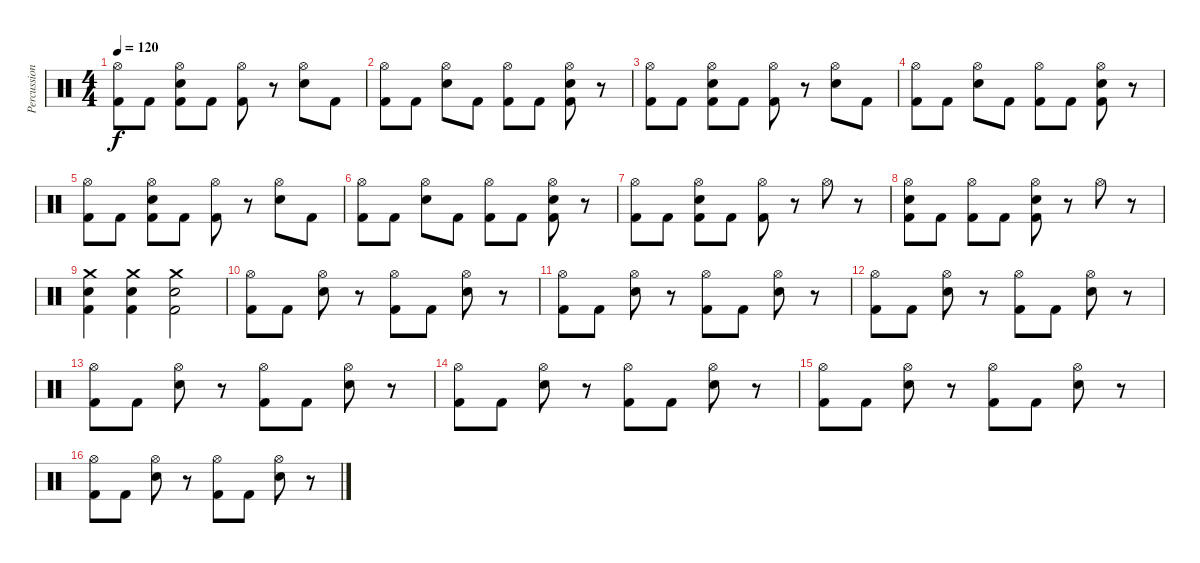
\track ("Percussion" "Percussion") {solo instrument percussion}
\staff {score}
\articulation defaults
\ts (4 4)
\tempo 120
\clef neutral
\ks c
("Hi-Hat (open)" "Kick (hit) 2").8{dy f} "Kick (hit) 2".8 ("Hi-Hat (open)" "Snare (hit) 2" "Kick (hit) 2").8 "Kick (hit) 2".8 ("Hi-Hat (open)" "Kick (hit) 2").8 r.8 ("Hi-Hat (open)" "Snare (hit) 2").8 "Kick (hit) 2".8 |
("Hi-Hat (open)" "Kick (hit) 2").8 "Kick (hit) 2".8 ("Hi-Hat (open)" "Snare (hit) 2").8 "Kick (hit) 2".8 ("Hi-Hat (open)" "Kick (hit) 2").8 "Kick (hit) 2".8 ("Hi-Hat (open)" "Snare (hit) 2" "Kick (hit) 2").8 r.8 |
("Hi-Hat (open)" "Kick (hit) 2").8 "Kick (hit) 2".8 ("Hi-Hat (open)" "Snare (hit) 2" "Kick (hit) 2").8 "Kick (hit) 2".8 ("Hi-Hat (open)" "Kick (hit) 2").8 r.8 ("Hi-Hat (open)" "Snare (hit) 2").8 "Kick (hit) 2".8 |
("Hi-Hat (open)" "Kick (hit) 2").8 "Kick (hit) 2".8 ("Hi-Hat (open)" "Snare (hit) 2").8 "Kick (hit) 2".8 ("Hi-Hat (open)" "Kick (hit) 2").8 "Kick (hit) 2".8 ("Hi-Hat (open)" "Snare (hit) 2" "Kick (hit) 2").8 r.8 |
("Hi-Hat (open)" "Kick (hit) 2").8 "Kick (hit) 2".8 ("Hi-Hat (open)" "Snare (hit) 2" "Kick (hit) 2").8 "Kick (hit) 2".8 ("Hi-Hat (open)" "Kick (hit) 2").8 r.8 ("Hi-Hat (open)" "Snare (hit) 2").8 "Kick (hit) 2".8 |
("Hi-Hat (open)" "Kick (hit) 2").8 "Kick (hit) 2".8 ("Hi-Hat (open)" "Snare (hit) 2").8 "Kick (hit) 2".8 ("Hi-Hat (open)" "Kick (hit) 2").8 "Kick (hit) 2".8 ("Hi-Hat (open)" "Snare (hit) 2" "Kick (hit) 2").8 r.8 |
("Hi-Hat (open)" "Kick (hit) 2").8 "Kick (hit) 2".8 ("Hi-Hat (open)" "Snare (hit) 2" "Kick (hit) 2").8 "Kick (hit) 2".8 ("Hi-Hat (open)" "Kick (hit) 2").8 r.8 "Hi-Hat (open)".8 r.8 |
("Hi-Hat (open)" "Snare (hit) 2" "Kick (hit) 2").8 "Kick (hit) 2".8 ("Hi-Hat (open)" "Kick (hit) 2").8 "Kick (hit) 2".8 ("Hi-Hat (open)" "Snare (hit) 2" "Kick (hit) 2").8 r.8 "Hi-Hat (open)".8 r.8 |
("Snare (hit) 2" "Kick (hit) 2" "Crash medium (hit)").4 ("Snare (hit) 2" "Kick (hit) 2" "Crash medium (hit)").4 ("Snare (hit) 2" "Kick (hit) 2" "Crash medium (hit)").2 |
("Hi-Hat (open)" "Kick (hit) 2").8 "Kick (hit) 2".8 ("Hi-Hat (open)" "Snare (hit) 2").8 r.8 ("Hi-Hat (open)" "Kick (hit) 2").8 "Kick (hit) 2".8 ("Hi-Hat (open)" "Snare (hit) 2").8 r.8 |
("Hi-Hat (open)" "Kick (hit) 2").8 "Kick (hit) 2".8 ("Hi-Hat (open)" "Snare (hit) 2").8 r.8 ("Hi-Hat (open)" "Kick (hit) 2").8 "Kick (hit) 2".8 ("Hi-Hat (open)" "Snare (hit) 2").8 r.8 |
("Hi-Hat (open)" "Kick (hit) 2").8 "Kick (hit) 2".8 ("Hi-Hat (open)" "Snare (hit) 2").8 r.8 ("Hi-Hat (open)" "Kick (hit) 2").8 "Kick (hit) 2".8 ("Hi-Hat (open)" "Snare (hit) 2").8 r.8 |
("Hi-Hat (open)" "Kick (hit) 2").8 "Kick (hit) 2".8 ("Hi-Hat (open)" "Snare (hit) 2").8 r.8 ("Hi-Hat (open)" "Kick (hit) 2").8 "Kick (hit) 2".8 ("Hi-Hat (open)" "Snare (hit) 2").8 r.8 |
("Hi-Hat (open)" "Kick (hit) 2").8 "Kick (hit) 2".8 ("Hi-Hat (open)" "Snare (hit) 2").8 r.8 ("Hi-Hat (open)" "Kick (hit) 2").8 "Kick (hit) 2".8 ("Hi-Hat (open)" "Snare (hit) 2").8 r.8 |
("Hi-Hat (open)" "Kick (hit) 2").8 "Kick (hit) 2".8 ("Hi-Hat (open)" "Snare (hit) 2").8 r.8 ("Hi-Hat (open)" "Kick (hit) 2").8 "Kick (hit) 2".8 ("Hi-Hat (open)" "Snare (hit) 2").8 r.8 |
("Hi-Hat (open)" "Kick (hit) 2").8 "Kick (hit) 2".8 ("Hi-Hat (open)" "Snare (hit) 2").8 r.8 ("Hi-Hat (open)" "Kick (hit) 2").8 "Kick (hit) 2".8 ("Hi-Hat (open)" "Snare (hit) 2").8 r.8
